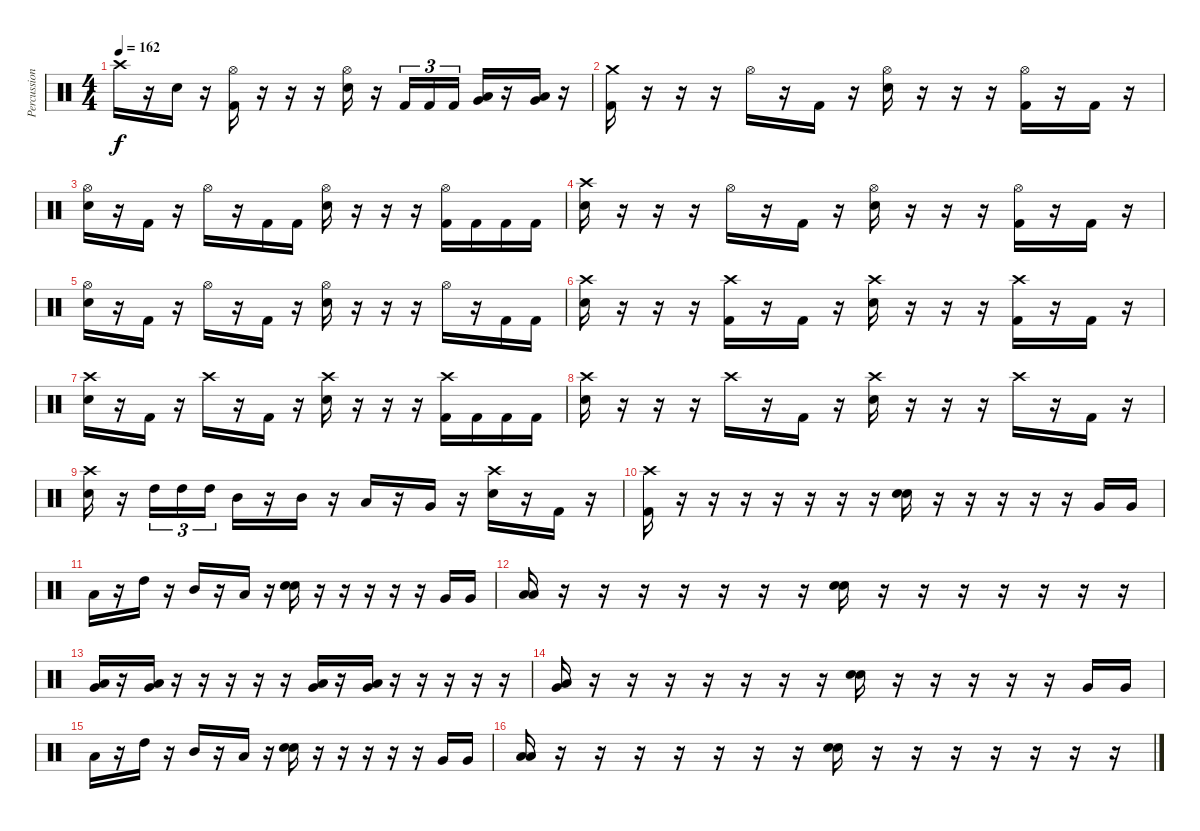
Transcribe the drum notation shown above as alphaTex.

\track ("Percussion" "Percussion") {instrument percussion}
\staff {score}
\articulation defaults
\ts (4 4)
\tempo 162
\clef neutral
\ks c "Crash high (hit)".16{dy f}
r.16 "Electric Snare (hit)".16 r.16 ("Hi-Hat (open)" "Kick (hit) 2").16 r.16 r.16 r.16 ("Hi-Hat (open)" "Electric Snare (hit)").16 r.16 "Kick (hit) 2".16{tu (3 2)} "Kick (hit) 2".16{tu (3 2)} "Kick (hit) 2".16{tu (3 2)} ("Low Tom (hit)" "Very Low Tom (hit)").16 r.16 ("Low Tom (hit)" "Very Low Tom (hit)").16 r.16 |
("Crash medium (hit)" "Kick (hit) 2").16 r.16 r.16 r.16 "Hi-Hat (open)".16 r.16 "Kick (hit) 2".16 r.16 ("Hi-Hat (open)" "Electric Snare (hit)").16 r.16 r.16 r.16 ("Hi-Hat (open)" "Kick (hit) 2").16 r.16 "Kick (hit) 2".16 r.16 |
("Hi-Hat (open)" "Electric Snare (hit)").16 r.16 "Kick (hit) 2".16 r.16 "Hi-Hat (open)".16 r.16 "Kick (hit) 2".16 "Kick (hit) 2".16 ("Hi-Hat (open)" "Electric Snare (hit)").16 r.16 r.16 r.16 ("Hi-Hat (open)" "Kick (hit) 2").16 "Kick (hit) 2".16 "Kick (hit) 2".16 "Kick (hit) 2".16 |
("Crash high (hit)" "Electric Snare (hit)").16 r.16 r.16 r.16 "Hi-Hat (open)".16 r.16 "Kick (hit) 2".16 r.16 ("Hi-Hat (open)" "Electric Snare (hit)").16 r.16 r.16 r.16 ("Hi-Hat (open)" "Kick (hit) 2").16 r.16 "Kick (hit) 2".16 r.16 |
("Hi-Hat (open)" "Electric Snare (hit)").16 r.16 "Kick (hit) 2".16 r.16 "Hi-Hat (open)".16 r.16 "Kick (hit) 2".16 r.16 ("Hi-Hat (open)" "Electric Snare (hit)").16 r.16 r.16 r.16 "Hi-Hat (open)".16 r.16 "Kick (hit) 2".16 "Kick (hit) 2".16 |
("Crash high (hit)" "Electric Snare (hit)").16 r.16 r.16 r.16 ("Crash high (hit)" "Kick (hit) 2").16 r.16 "Kick (hit) 2".16 r.16 ("Crash high (hit)" "Electric Snare (hit)").16 r.16 r.16 r.16 ("Crash high (hit)" "Kick (hit) 2").16 r.16 "Kick (hit) 2".16 r.16 |
("Crash high (hit)" "Electric Snare (hit)").16 r.16 "Kick (hit) 2".16 r.16 "Crash high (hit)".16 r.16 "Kick (hit) 2".16 r.16 ("Crash high (hit)" "Electric Snare (hit)").16 r.16 r.16 r.16 ("Crash high (hit)" "Kick (hit) 2").16 "Kick (hit) 2".16 "Kick (hit) 2".16 "Kick (hit) 2".16 |
("Crash high (hit)" "Electric Snare (hit)").16 r.16 r.16 r.16 "Crash high (hit)".16 r.16 "Kick (hit) 2".16 r.16 ("Crash high (hit)" "Electric Snare (hit)").16 r.16 r.16 r.16 "Crash high (hit)".16 r.16 "Kick (hit) 2".16 r.16 |
("Crash high (hit)" "Electric Snare (hit)").16 r.16 "High Tom (hit)".16{tu (3 2)} "High Tom (hit)".16{tu (3 2)} "High Tom (hit)".16{tu (3 2)} "Mid Tom (hit)".16 r.16 "Mid Tom (hit)".16 r.16 "Low Tom (hit)".16 r.16 "Very Low Tom (hit)".16 r.16 ("Crash high (hit)" "Electric Snare (hit)").16 r.16 "Kick (hit) 2".16 r.16 |
("Crash high (hit)" "Kick (hit) 2").16 r.16 r.16 r.16 r.16 r.16 r.16 r.16 ("Electric Snare (hit)" "Electric Snare (hit)").16{bu 60} r.16 r.16 r.16 r.16 r.16 "Very Low Tom (hit)".16 "Very Low Tom (hit)".16 |
"Low Tom (hit)".16 r.16 "High Tom (hit)".16 r.16 "Mid Tom (hit)".16 r.16 "Low Tom (hit)".16 r.16 ("Electric Snare (hit)" "Electric Snare (hit)").16{bu 60} r.16 r.16 r.16 r.16 r.16 "Very Low Tom (hit)".16 "Very Low Tom (hit)".16 |
("Low Floor Tom (hit)" "Low Floor Tom (hit)").16{bu 60} r.16 r.16 r.16 r.16 r.16 r.16 r.16 ("Electric Snare (hit)" "Electric Snare (hit)").16{bu 60} r.16 r.16 r.16 r.16 r.16 r.16 r.16 |
("Low Tom (hit)" "Very Low Tom (hit)").16 r.16 ("Low Tom (hit)" "Very Low Tom (hit)").16 r.16 r.16 r.16 r.16 r.16 ("Very Low Tom (hit)" "Low Floor Tom (hit)").16 r.16 ("Very Low Tom (hit)" "Low Floor Tom (hit)").16 r.16 r.16 r.16 r.16 r.16 |
("Low Tom (hit)" "Very Low Tom (hit)").16 r.16 r.16 r.16 r.16 r.16 r.16 r.16 ("Electric Snare (hit)" "Electric Snare (hit)").16{bu 60} r.16 r.16 r.16 r.16 r.16 "Very Low Tom (hit)".16 "Very Low Tom (hit)".16 |
"Low Tom (hit)".16 r.16 "High Tom (hit)".16 r.16 "Mid Tom (hit)".16 r.16 "Low Tom (hit)".16 r.16 ("Electric Snare (hit)" "Electric Snare (hit)").16{bu 60} r.16 r.16 r.16 r.16 r.16 "Very Low Tom (hit)".16 "Very Low Tom (hit)".16 |
("Low Floor Tom (hit)" "Low Floor Tom (hit)").16{bu 60} r.16 r.16 r.16 r.16 r.16 r.16 r.16 ("Electric Snare (hit)" "Electric Snare (hit)").16{bu 60} r.16 r.16 r.16 r.16 r.16 r.16 r.16
